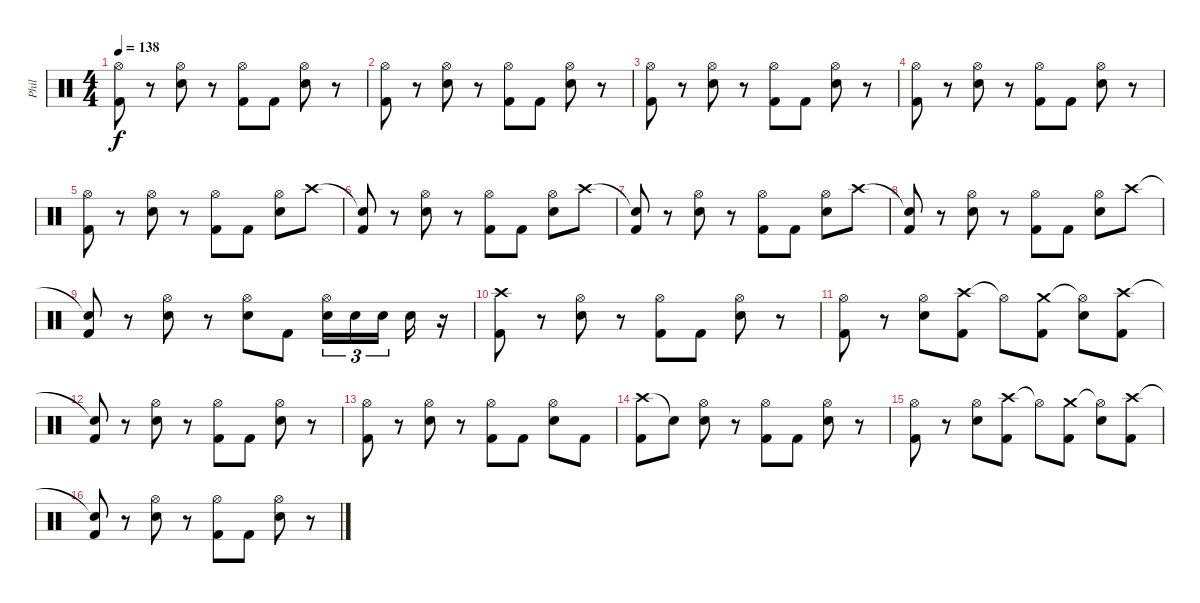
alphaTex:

\track ("Phil" "Phil") {instrument percussion}
\staff {score}
\articulation defaults
\ts (4 4)
\tempo 138
\clef neutral
\ks c
("Hi-Hat (open)" "Kick (hit) 2").8{dy f} r.8 ("Hi-Hat (open)" "Snare (hit) 2").8 r.8 ("Hi-Hat (open)" "Kick (hit) 2").8 "Kick (hit) 2".8 ("Hi-Hat (open)" "Snare (hit) 2").8 r.8 |
("Hi-Hat (open)" "Kick (hit) 2").8 r.8 ("Hi-Hat (open)" "Snare (hit) 2").8 r.8 ("Hi-Hat (open)" "Kick (hit) 2").8 "Kick (hit) 2".8 ("Hi-Hat (open)" "Snare (hit) 2").8 r.8 |
("Hi-Hat (open)" "Kick (hit) 2").8 r.8 ("Hi-Hat (open)" "Snare (hit) 2").8 r.8 ("Hi-Hat (open)" "Kick (hit) 2").8 "Kick (hit) 2".8 ("Hi-Hat (open)" "Snare (hit) 2").8 r.8 |
("Hi-Hat (open)" "Kick (hit) 2").8 r.8 ("Hi-Hat (open)" "Snare (hit) 2").8 r.8 ("Hi-Hat (open)" "Kick (hit) 2").8 "Kick (hit) 2".8 ("Hi-Hat (open)" "Snare (hit) 2").8 r.8 |
("Hi-Hat (open)" "Kick (hit) 2").8 r.8 ("Hi-Hat (open)" "Snare (hit) 2").8 r.8 ("Hi-Hat (open)" "Kick (hit) 2").8 "Kick (hit) 2".8 ("Hi-Hat (open)" "Snare (hit) 2").8 "Crash high (hit)".8 |
("Snare (hit)"{t} "Kick (hit) 2").8 r.8 ("Hi-Hat (open)" "Snare (hit) 2").8 r.8 ("Hi-Hat (open)" "Kick (hit) 2").8 "Kick (hit) 2".8 ("Hi-Hat (open)" "Snare (hit) 2").8 "Crash high (hit)".8 |
("Snare (hit)"{t} "Kick (hit) 2").8 r.8 ("Hi-Hat (open)" "Snare (hit) 2").8 r.8 ("Hi-Hat (open)" "Kick (hit) 2").8 "Kick (hit) 2".8 ("Hi-Hat (open)" "Snare (hit) 2").8 "Crash high (hit)".8 |
("Snare (hit)"{t} "Kick (hit) 2").8 r.8 ("Hi-Hat (open)" "Snare (hit) 2").8 r.8 ("Hi-Hat (open)" "Kick (hit) 2").8 "Kick (hit) 2".8 ("Hi-Hat (open)" "Snare (hit) 2").8 "Crash high (hit)".8 |
("Snare (hit)"{t} "Kick (hit) 2").8 r.8 ("Hi-Hat (open)" "Snare (hit) 2").8 r.8 ("Hi-Hat (open)" "Snare (hit) 2").8 "Kick (hit) 2".8 ("Hi-Hat (open)" "Snare (hit) 2").16{tu (3 2)} "Snare (hit) 2".16{tu (3 2)} "Snare (hit) 2".16{tu (3 2) beam splitsecondary} "Snare (hit) 2".16 r.16 |
("Crash high (hit)" "Kick (hit) 2").8 r.8 ("Hi-Hat (open)" "Snare (hit) 2").8 r.8 ("Hi-Hat (open)" "Kick (hit) 2").8 "Kick (hit) 2".8 ("Hi-Hat (open)" "Snare (hit) 2").8 r.8 |
("Hi-Hat (open)" "Kick (hit) 2").8 r.8 ("Hi-Hat (open)" "Snare (hit) 2").8 ("Crash high (hit)" "Kick (hit) 2").8 "Hi-Hat (open)"{t}.8 ("Crash medium (hit)" "Kick (hit) 2").8 ("Hi-Hat (open)"{t} "Snare (hit) 2").8 ("Crash high (hit)" "Kick (hit) 2").8 |
("Snare (hit)"{t} "Kick (hit) 2").8 r.8 ("Hi-Hat (open)" "Snare (hit) 2").8 r.8 ("Hi-Hat (open)" "Kick (hit) 2").8 "Kick (hit) 2".8 ("Hi-Hat (open)" "Snare (hit) 2").8 r.8 |
("Hi-Hat (open)" "Kick (hit) 2").8 r.8 ("Hi-Hat (open)" "Snare (hit) 2").8 r.8 ("Hi-Hat (open)" "Kick (hit) 2").8 "Kick (hit) 2".8 ("Hi-Hat (open)" "Snare (hit) 2").8 "Kick (hit) 2".8 |
("Crash high (hit)" "Kick (hit) 2").8 "Snare (hit)"{t}.8 ("Hi-Hat (open)" "Snare (hit) 2").8 r.8 ("Hi-Hat (open)" "Kick (hit) 2").8 "Kick (hit) 2".8 ("Hi-Hat (open)" "Snare (hit) 2").8 r.8 |
("Hi-Hat (open)" "Kick (hit) 2").8 r.8 ("Hi-Hat (open)" "Snare (hit) 2").8 ("Crash high (hit)" "Kick (hit) 2").8 "Hi-Hat (open)"{t}.8 ("Crash medium (hit)" "Kick (hit) 2").8 ("Hi-Hat (open)"{t} "Snare (hit) 2").8 ("Crash high (hit)" "Kick (hit) 2").8 |
("Snare (hit)"{t} "Kick (hit) 2").8 r.8 ("Hi-Hat (open)" "Snare (hit) 2").8 r.8 ("Hi-Hat (open)" "Kick (hit) 2").8 "Kick (hit) 2".8 ("Hi-Hat (open)" "Snare (hit) 2").8 r.8
